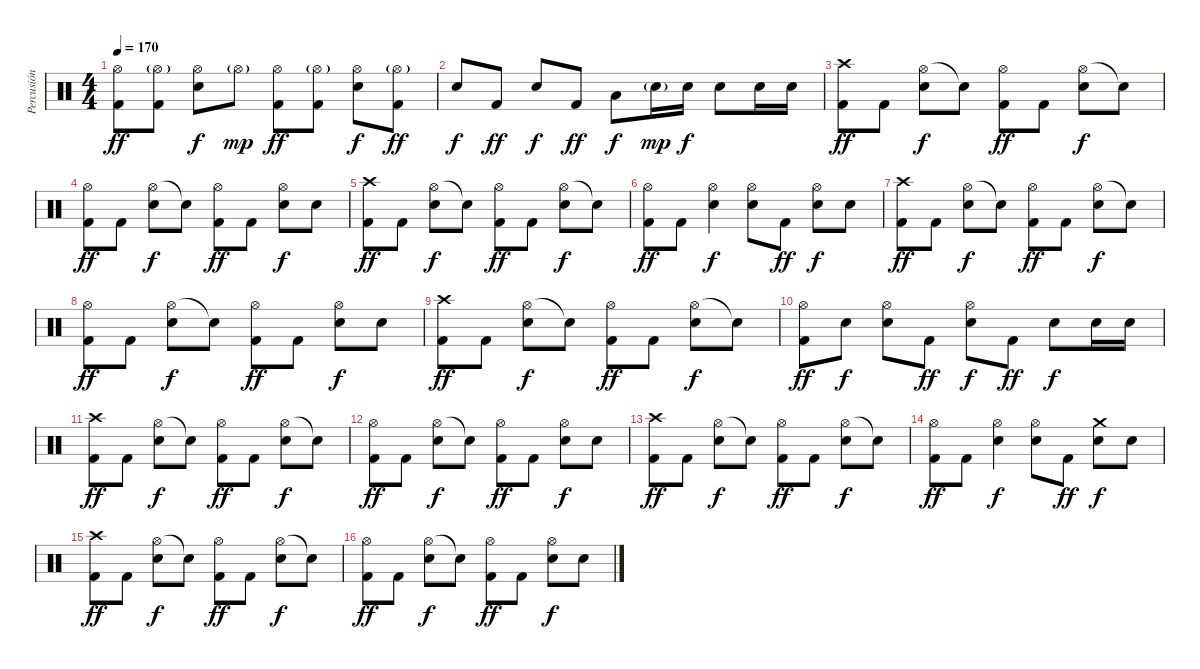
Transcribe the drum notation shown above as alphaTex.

\track ("Percusión" "Percusión") {instrument percussion}
\staff {score}
\articulation defaults
\ts (4 4)
\tempo 170
\clef neutral
\ks c
("Hi-Hat (open)" "Kick (hit) 2").8{dy ff} ("Hi-Hat (open)"{g} "Kick (hit) 2").8 ("Hi-Hat (open)" "Snare (hit) 2").8{dy f} "Hi-Hat (open)"{g}.8{dy mp} ("Hi-Hat (open)" "Kick (hit) 2").8{dy ff} ("Hi-Hat (open)"{g} "Kick (hit) 2").8 ("Hi-Hat (open)" "Snare (hit) 2").8{dy f} ("Hi-Hat (open)"{g} "Kick (hit) 2").8{dy ff} |
"Snare (hit) 2".8{dy f} "Kick (hit) 2".8{dy ff} "Snare (hit) 2".8{dy f} "Kick (hit) 2".8{dy ff} "Low Tom (hit)".8{dy f} "Snare (hit) 2"{g}.16{dy mp} "Snare (hit) 2".16{dy f} "Snare (hit) 2".8 "Snare (hit) 2".16 "Snare (hit) 2".16 |
("Crash high (hit)" "Kick (hit) 2").8{dy ff} "Kick (hit) 2".8 ("Hi-Hat (open)" "Snare (hit) 2").8{dy f} "Snare (hit)"{t}.8 ("Hi-Hat (open)" "Kick (hit) 2").8{dy ff} "Kick (hit) 2".8 ("Hi-Hat (open)" "Snare (hit) 2").8{dy f} "Snare (hit)"{t}.8 |
("Hi-Hat (open)" "Kick (hit) 2").8{dy ff} "Kick (hit) 2".8 ("Hi-Hat (open)" "Snare (hit) 2").8{dy f} "Snare (hit)"{t}.8 ("Hi-Hat (open)" "Kick (hit) 2").8{dy ff} "Kick (hit) 2".8 ("Hi-Hat (open)" "Snare (hit) 2").8{dy f} "Snare (hit) 2".8 |
("Crash high (hit)" "Kick (hit) 2").8{dy ff} "Kick (hit) 2".8 ("Hi-Hat (open)" "Snare (hit) 2").8{dy f} "Snare (hit)"{t}.8 ("Hi-Hat (open)" "Kick (hit) 2").8{dy ff} "Kick (hit) 2".8 ("Hi-Hat (open)" "Snare (hit) 2").8{dy f} "Snare (hit)"{t}.8 |
("Hi-Hat (open)" "Kick (hit) 2").8{dy ff} "Kick (hit) 2".8 ("Hi-Hat (open)" "Snare (hit) 2").4{dy f} ("Hi-Hat (open)" "Snare (hit) 2").8 "Kick (hit) 2".8{dy ff} ("Hi-Hat (open)" "Snare (hit) 2").8{dy f} "Snare (hit) 2".8 |
("Crash high (hit)" "Kick (hit) 2").8{dy ff} "Kick (hit) 2".8 ("Hi-Hat (open)" "Snare (hit) 2").8{dy f} "Snare (hit)"{t}.8 ("Hi-Hat (open)" "Kick (hit) 2").8{dy ff} "Kick (hit) 2".8 ("Hi-Hat (open)" "Snare (hit) 2").8{dy f} "Snare (hit)"{t}.8 |
("Hi-Hat (open)" "Kick (hit) 2").8{dy ff} "Kick (hit) 2".8 ("Hi-Hat (open)" "Snare (hit) 2").8{dy f} "Snare (hit)"{t}.8 ("Hi-Hat (open)" "Kick (hit) 2").8{dy ff} "Kick (hit) 2".8 ("Hi-Hat (open)" "Snare (hit) 2").8{dy f} "Snare (hit) 2".8 |
("Crash high (hit)" "Kick (hit) 2").8{dy ff} "Kick (hit) 2".8 ("Hi-Hat (open)" "Snare (hit) 2").8{dy f} "Snare (hit)"{t}.8 ("Hi-Hat (open)" "Kick (hit) 2").8{dy ff} "Kick (hit) 2".8 ("Hi-Hat (open)" "Snare (hit) 2").8{dy f} "Snare (hit)"{t}.8 |
("Hi-Hat (open)" "Kick (hit) 2").8{dy ff} "Snare (hit) 2".8{dy f} ("Hi-Hat (open)" "Snare (hit) 2").8 "Kick (hit) 2".8{dy ff} ("Hi-Hat (open)" "Snare (hit) 2").8{dy f} "Kick (hit) 2".8{dy ff} "Snare (hit) 2".8{dy f} "Snare (hit) 2".16 "Snare (hit) 2".16 |
("Crash high (hit)" "Kick (hit) 2").8{dy ff} "Kick (hit) 2".8 ("Hi-Hat (open)" "Snare (hit) 2").8{dy f} "Snare (hit)"{t}.8 ("Hi-Hat (open)" "Kick (hit) 2").8{dy ff} "Kick (hit) 2".8 ("Hi-Hat (open)" "Snare (hit) 2").8{dy f} "Snare (hit)"{t}.8 |
("Hi-Hat (open)" "Kick (hit) 2").8{dy ff} "Kick (hit) 2".8 ("Hi-Hat (open)" "Snare (hit) 2").8{dy f} "Snare (hit)"{t}.8 ("Hi-Hat (open)" "Kick (hit) 2").8{dy ff} "Kick (hit) 2".8 ("Hi-Hat (open)" "Snare (hit) 2").8{dy f} "Snare (hit) 2".8 |
("Crash high (hit)" "Kick (hit) 2").8{dy ff} "Kick (hit) 2".8 ("Hi-Hat (open)" "Snare (hit) 2").8{dy f} "Snare (hit)"{t}.8 ("Hi-Hat (open)" "Kick (hit) 2").8{dy ff} "Kick (hit) 2".8 ("Hi-Hat (open)" "Snare (hit) 2").8{dy f} "Snare (hit)"{t}.8 |
("Hi-Hat (open)" "Kick (hit) 2").8{dy ff} "Kick (hit) 2".8 ("Hi-Hat (open)" "Snare (hit) 2").4{dy f} ("Hi-Hat (open)" "Snare (hit) 2").8 "Kick (hit) 2".8{dy ff} ("Crash medium (hit)" "Snare (hit) 2").8{dy f} "Snare (hit) 2".8 |
("Crash high (hit)" "Kick (hit) 2").8{dy ff} "Kick (hit) 2".8 ("Hi-Hat (open)" "Snare (hit) 2").8{dy f} "Snare (hit)"{t}.8 ("Hi-Hat (open)" "Kick (hit) 2").8{dy ff} "Kick (hit) 2".8 ("Hi-Hat (open)" "Snare (hit) 2").8{dy f} "Snare (hit)"{t}.8 |
("Hi-Hat (open)" "Kick (hit) 2").8{dy ff} "Kick (hit) 2".8 ("Hi-Hat (open)" "Snare (hit) 2").8{dy f} "Snare (hit)"{t}.8 ("Hi-Hat (open)" "Kick (hit) 2").8{dy ff} "Kick (hit) 2".8 ("Hi-Hat (open)" "Snare (hit) 2").8{dy f} "Snare (hit) 2".8
